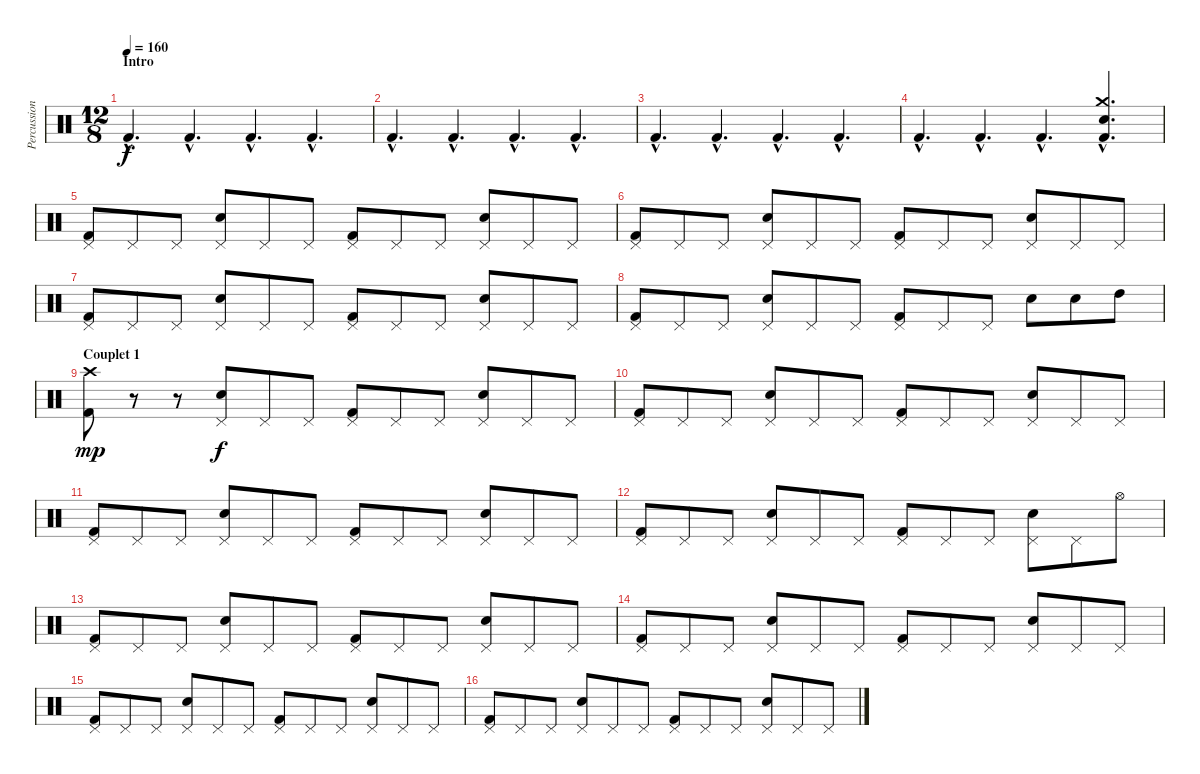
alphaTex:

\track ("Percussions" "Percussion") {instrument percussion}
\staff {score}
\articulation defaults
\ts (12 8)
\section ("" "Intro")
\tempo 160
\clef neutral
\ks c "Kick (hit) 2"{hac}.4{d dy f} "Kick (hit) 2"{hac}.4{d} "Kick (hit) 2"{hac}.4{d} "Kick (hit) 2"{hac}.4{d}
|
"Kick (hit) 2"{hac}.4{d} "Kick (hit) 2"{hac}.4{d} "Kick (hit) 2"{hac}.4{d} "Kick (hit) 2"{hac}.4{d} |
"Kick (hit) 2"{hac}.4{d} "Kick (hit) 2"{hac}.4{d} "Kick (hit) 2"{hac}.4{d} "Kick (hit) 2"{hac}.4{d} |
"Kick (hit) 2"{hac}.4{d} "Kick (hit) 2"{hac}.4{d} "Kick (hit) 2"{hac}.4{d} ("Crash medium (hit)"{hac} "Electric Snare (hit)"{hac} "Kick (hit) 2"{hac}).4{d} |
("Pedal Hi-Hat (hit)" "Kick (hit) 2").8 "Pedal Hi-Hat (hit)".8 "Pedal Hi-Hat (hit)".8 ("Pedal Hi-Hat (hit)" "Electric Snare (hit)").8 "Pedal Hi-Hat (hit)".8 "Pedal Hi-Hat (hit)".8 ("Pedal Hi-Hat (hit)" "Kick (hit) 2").8 "Pedal Hi-Hat (hit)".8 "Pedal Hi-Hat (hit)".8 ("Pedal Hi-Hat (hit)" "Electric Snare (hit)").8 "Pedal Hi-Hat (hit)".8 "Pedal Hi-Hat (hit)".8 |
("Pedal Hi-Hat (hit)" "Kick (hit) 2").8 "Pedal Hi-Hat (hit)".8 "Pedal Hi-Hat (hit)".8 ("Pedal Hi-Hat (hit)" "Electric Snare (hit)").8 "Pedal Hi-Hat (hit)".8 "Pedal Hi-Hat (hit)".8 ("Pedal Hi-Hat (hit)" "Kick (hit) 2").8 "Pedal Hi-Hat (hit)".8 "Pedal Hi-Hat (hit)".8 ("Pedal Hi-Hat (hit)" "Electric Snare (hit)").8 "Pedal Hi-Hat (hit)".8 "Pedal Hi-Hat (hit)".8 |
("Pedal Hi-Hat (hit)" "Kick (hit) 2").8 "Pedal Hi-Hat (hit)".8 "Pedal Hi-Hat (hit)".8 ("Pedal Hi-Hat (hit)" "Electric Snare (hit)").8 "Pedal Hi-Hat (hit)".8 "Pedal Hi-Hat (hit)".8 ("Pedal Hi-Hat (hit)" "Kick (hit) 2").8 "Pedal Hi-Hat (hit)".8 "Pedal Hi-Hat (hit)".8 ("Pedal Hi-Hat (hit)" "Electric Snare (hit)").8 "Pedal Hi-Hat (hit)".8 "Pedal Hi-Hat (hit)".8 |
("Pedal Hi-Hat (hit)" "Kick (hit) 2").8 "Pedal Hi-Hat (hit)".8 "Pedal Hi-Hat (hit)".8 ("Pedal Hi-Hat (hit)" "Electric Snare (hit)").8 "Pedal Hi-Hat (hit)".8 "Pedal Hi-Hat (hit)".8 ("Pedal Hi-Hat (hit)" "Kick (hit) 2").8 "Pedal Hi-Hat (hit)".8 "Pedal Hi-Hat (hit)".8 "Electric Snare (hit)".8 "Electric Snare (hit)".8 "High Tom (hit)".8 |
\section ("" "Couplet 1")
("Crash high (hit)" "Kick (hit) 2").8{dy mp} r.8 r.8 ("Pedal Hi-Hat (hit)" "Electric Snare (hit)").8{dy f} "Pedal Hi-Hat (hit)".8 "Pedal Hi-Hat (hit)".8 ("Pedal Hi-Hat (hit)" "Kick (hit) 2").8 "Pedal Hi-Hat (hit)".8 "Pedal Hi-Hat (hit)".8 ("Pedal Hi-Hat (hit)" "Electric Snare (hit)").8 "Pedal Hi-Hat (hit)".8 "Pedal Hi-Hat (hit)".8 |
("Pedal Hi-Hat (hit)" "Kick (hit) 2").8 "Pedal Hi-Hat (hit)".8 "Pedal Hi-Hat (hit)".8 ("Pedal Hi-Hat (hit)" "Electric Snare (hit)").8 "Pedal Hi-Hat (hit)".8 "Pedal Hi-Hat (hit)".8 ("Pedal Hi-Hat (hit)" "Kick (hit) 2").8 "Pedal Hi-Hat (hit)".8 "Pedal Hi-Hat (hit)".8 ("Pedal Hi-Hat (hit)" "Electric Snare (hit)").8 "Pedal Hi-Hat (hit)".8 "Pedal Hi-Hat (hit)".8 |
("Pedal Hi-Hat (hit)" "Kick (hit) 2").8 "Pedal Hi-Hat (hit)".8 "Pedal Hi-Hat (hit)".8 ("Pedal Hi-Hat (hit)" "Electric Snare (hit)").8 "Pedal Hi-Hat (hit)".8 "Pedal Hi-Hat (hit)".8 ("Pedal Hi-Hat (hit)" "Kick (hit) 2").8 "Pedal Hi-Hat (hit)".8 "Pedal Hi-Hat (hit)".8 ("Pedal Hi-Hat (hit)" "Electric Snare (hit)").8 "Pedal Hi-Hat (hit)".8 "Pedal Hi-Hat (hit)".8 |
("Pedal Hi-Hat (hit)" "Kick (hit) 2").8 "Pedal Hi-Hat (hit)".8 "Pedal Hi-Hat (hit)".8 ("Pedal Hi-Hat (hit)" "Electric Snare (hit)").8 "Pedal Hi-Hat (hit)".8 "Pedal Hi-Hat (hit)".8 ("Pedal Hi-Hat (hit)" "Kick (hit) 2").8 "Pedal Hi-Hat (hit)".8 "Pedal Hi-Hat (hit)".8 ("Pedal Hi-Hat (hit)" "Electric Snare (hit)").8 "Pedal Hi-Hat (hit)".8 "Hi-Hat (open)".8 |
("Pedal Hi-Hat (hit)" "Kick (hit) 2").8 "Pedal Hi-Hat (hit)".8 "Pedal Hi-Hat (hit)".8 ("Pedal Hi-Hat (hit)" "Electric Snare (hit)").8 "Pedal Hi-Hat (hit)".8 "Pedal Hi-Hat (hit)".8 ("Pedal Hi-Hat (hit)" "Kick (hit) 2").8 "Pedal Hi-Hat (hit)".8 "Pedal Hi-Hat (hit)".8 ("Pedal Hi-Hat (hit)" "Electric Snare (hit)").8 "Pedal Hi-Hat (hit)".8 "Pedal Hi-Hat (hit)".8 |
("Pedal Hi-Hat (hit)" "Kick (hit) 2").8 "Pedal Hi-Hat (hit)".8 "Pedal Hi-Hat (hit)".8 ("Pedal Hi-Hat (hit)" "Electric Snare (hit)").8 "Pedal Hi-Hat (hit)".8 "Pedal Hi-Hat (hit)".8 ("Pedal Hi-Hat (hit)" "Kick (hit) 2").8 "Pedal Hi-Hat (hit)".8 "Pedal Hi-Hat (hit)".8 ("Pedal Hi-Hat (hit)" "Electric Snare (hit)").8 "Pedal Hi-Hat (hit)".8 "Pedal Hi-Hat (hit)".8 |
("Pedal Hi-Hat (hit)" "Kick (hit) 2").8 "Pedal Hi-Hat (hit)".8 "Pedal Hi-Hat (hit)".8 ("Pedal Hi-Hat (hit)" "Electric Snare (hit)").8 "Pedal Hi-Hat (hit)".8 "Pedal Hi-Hat (hit)".8 ("Pedal Hi-Hat (hit)" "Kick (hit) 2").8 "Pedal Hi-Hat (hit)".8 "Pedal Hi-Hat (hit)".8 ("Pedal Hi-Hat (hit)" "Electric Snare (hit)").8 "Pedal Hi-Hat (hit)".8 "Pedal Hi-Hat (hit)".8 |
("Pedal Hi-Hat (hit)" "Kick (hit) 2").8 "Pedal Hi-Hat (hit)".8 "Pedal Hi-Hat (hit)".8 ("Pedal Hi-Hat (hit)" "Electric Snare (hit)").8 "Pedal Hi-Hat (hit)".8 "Pedal Hi-Hat (hit)".8 ("Pedal Hi-Hat (hit)" "Kick (hit) 2").8 "Pedal Hi-Hat (hit)".8 "Pedal Hi-Hat (hit)".8 ("Pedal Hi-Hat (hit)" "Electric Snare (hit)").8 "Pedal Hi-Hat (hit)".8 "Pedal Hi-Hat (hit)".8
